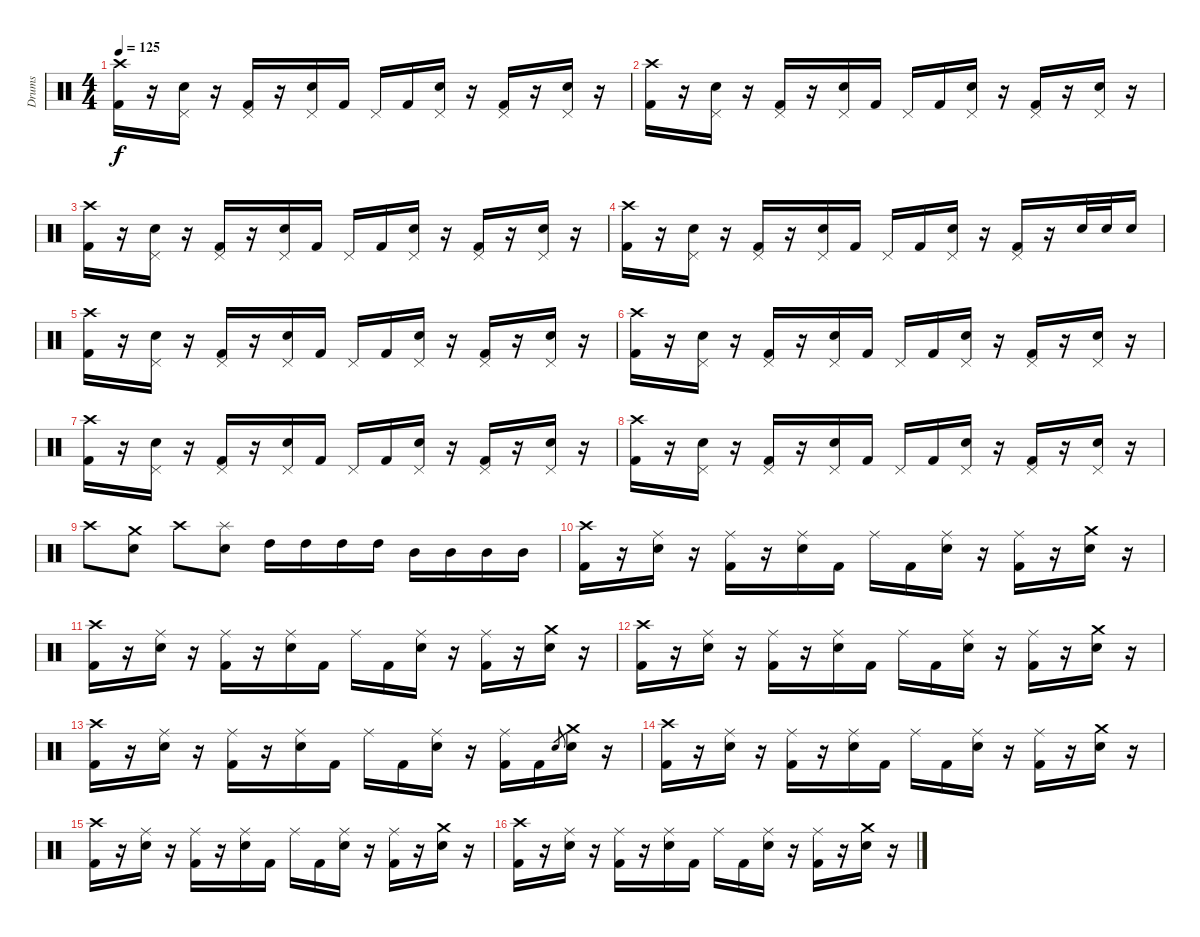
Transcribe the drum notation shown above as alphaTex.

\track ("Drums" "Drums") {instrument percussion}
\staff {score}
\articulation defaults
\ts (4 4)
\tempo 125
\clef neutral
\ks c
("Crash high (hit)" "Kick (hit) 2").16{dy f volume 14} r.16 ("Pedal Hi-Hat (hit)" "Electric Snare (hit)").16 r.16 ("Pedal Hi-Hat (hit)" "Kick (hit) 2").16 r.16 ("Pedal Hi-Hat (hit)" "Electric Snare (hit)").16 "Kick (hit) 2".16 "Pedal Hi-Hat (hit)".16 "Kick (hit) 2".16 ("Pedal Hi-Hat (hit)" "Electric Snare (hit)").16 r.16 ("Pedal Hi-Hat (hit)" "Kick (hit) 2").16 r.16 ("Pedal Hi-Hat (hit)" "Electric Snare (hit)").16 r.16 |
("Crash high (hit)" "Kick (hit) 2").16{volume 14} r.16 ("Pedal Hi-Hat (hit)" "Electric Snare (hit)").16 r.16 ("Pedal Hi-Hat (hit)" "Kick (hit) 2").16 r.16 ("Pedal Hi-Hat (hit)" "Electric Snare (hit)").16 "Kick (hit) 2".16 "Pedal Hi-Hat (hit)".16 "Kick (hit) 2".16 ("Pedal Hi-Hat (hit)" "Electric Snare (hit)").16 r.16 ("Pedal Hi-Hat (hit)" "Kick (hit) 2").16 r.16 ("Pedal Hi-Hat (hit)" "Electric Snare (hit)").16 r.16 |
("Crash high (hit)" "Kick (hit) 2").16{volume 14} r.16 ("Pedal Hi-Hat (hit)" "Electric Snare (hit)").16 r.16 ("Pedal Hi-Hat (hit)" "Kick (hit) 2").16 r.16 ("Pedal Hi-Hat (hit)" "Electric Snare (hit)").16 "Kick (hit) 2".16 "Pedal Hi-Hat (hit)".16 "Kick (hit) 2".16 ("Pedal Hi-Hat (hit)" "Electric Snare (hit)").16 r.16 ("Pedal Hi-Hat (hit)" "Kick (hit) 2").16 r.16 ("Pedal Hi-Hat (hit)" "Electric Snare (hit)").16 r.16 |
("Crash high (hit)" "Kick (hit) 2").16{volume 14} r.16 ("Pedal Hi-Hat (hit)" "Electric Snare (hit)").16 r.16 ("Pedal Hi-Hat (hit)" "Kick (hit) 2").16 r.16 ("Pedal Hi-Hat (hit)" "Electric Snare (hit)").16 "Kick (hit) 2".16 "Pedal Hi-Hat (hit)".16 "Kick (hit) 2".16 ("Pedal Hi-Hat (hit)" "Electric Snare (hit)").16 r.16 ("Pedal Hi-Hat (hit)" "Kick (hit) 2").16 r.16 "Electric Snare (hit)".32 "Electric Snare (hit)".32 "Electric Snare (hit)".16 |
("Crash high (hit)" "Kick (hit) 2").16{volume 14} r.16 ("Pedal Hi-Hat (hit)" "Electric Snare (hit)").16 r.16 ("Pedal Hi-Hat (hit)" "Kick (hit) 2").16 r.16 ("Pedal Hi-Hat (hit)" "Electric Snare (hit)").16 "Kick (hit) 2".16 "Pedal Hi-Hat (hit)".16 "Kick (hit) 2".16 ("Pedal Hi-Hat (hit)" "Electric Snare (hit)").16 r.16 ("Pedal Hi-Hat (hit)" "Kick (hit) 2").16 r.16 ("Pedal Hi-Hat (hit)" "Electric Snare (hit)").16 r.16 |
("Crash high (hit)" "Kick (hit) 2").16{volume 14} r.16 ("Pedal Hi-Hat (hit)" "Electric Snare (hit)").16 r.16 ("Pedal Hi-Hat (hit)" "Kick (hit) 2").16 r.16 ("Pedal Hi-Hat (hit)" "Electric Snare (hit)").16 "Kick (hit) 2".16 "Pedal Hi-Hat (hit)".16 "Kick (hit) 2".16 ("Pedal Hi-Hat (hit)" "Electric Snare (hit)").16 r.16 ("Pedal Hi-Hat (hit)" "Kick (hit) 2").16 r.16 ("Pedal Hi-Hat (hit)" "Electric Snare (hit)").16 r.16 |
("Crash high (hit)" "Kick (hit) 2").16{volume 14} r.16 ("Pedal Hi-Hat (hit)" "Electric Snare (hit)").16 r.16 ("Pedal Hi-Hat (hit)" "Kick (hit) 2").16 r.16 ("Pedal Hi-Hat (hit)" "Electric Snare (hit)").16 "Kick (hit) 2".16 "Pedal Hi-Hat (hit)".16 "Kick (hit) 2".16 ("Pedal Hi-Hat (hit)" "Electric Snare (hit)").16 r.16 ("Pedal Hi-Hat (hit)" "Kick (hit) 2").16 r.16 ("Pedal Hi-Hat (hit)" "Electric Snare (hit)").16 r.16 |
("Crash high (hit)" "Kick (hit) 2").16{volume 14} r.16 ("Pedal Hi-Hat (hit)" "Electric Snare (hit)").16 r.16 ("Pedal Hi-Hat (hit)" "Kick (hit) 2").16 r.16 ("Pedal Hi-Hat (hit)" "Electric Snare (hit)").16 "Kick (hit) 2".16 "Pedal Hi-Hat (hit)".16 "Kick (hit) 2".16 ("Pedal Hi-Hat (hit)" "Electric Snare (hit)").16 r.16 ("Pedal Hi-Hat (hit)" "Kick (hit) 2").16 r.16 ("Pedal Hi-Hat (hit)" "Electric Snare (hit)").16 r.16 |
"Crash high (hit)".8 ("Crash medium (hit)" "Electric Snare (hit)").8 "Crash high (hit)".8 ("Splash (hit)" "Electric Snare (hit)").8 "High Tom (hit)".16 "High Tom (hit)".16 "High Tom (hit)".16 "High Tom (hit)".16 "Mid Tom (hit)".16 "Mid Tom (hit)".16 "Mid Tom (hit)".16 "Mid Tom (hit)".16 |
("Crash high (hit)" "Kick (hit) 2").16 r.16 ("Ride (middle)" "Electric Snare (hit)").16 r.16 ("Ride (middle)" "Kick (hit) 2").16 r.16 ("Ride (middle)" "Electric Snare (hit)").16 "Kick (hit) 2".16 "Ride (middle)".16 "Kick (hit) 2".16 ("Ride (middle)" "Electric Snare (hit)").16 r.16 ("Ride (middle)" "Kick (hit) 2").16 r.16 ("Crash medium (hit)" "Electric Snare (hit)").16 r.16 |
("Crash high (hit)" "Kick (hit) 2").16 r.16 ("Ride (middle)" "Electric Snare (hit)").16 r.16 ("Ride (middle)" "Kick (hit) 2").16 r.16 ("Ride (middle)" "Electric Snare (hit)").16 "Kick (hit) 2".16 "Ride (middle)".16 "Kick (hit) 2".16 ("Ride (middle)" "Electric Snare (hit)").16 r.16 ("Ride (middle)" "Kick (hit) 2").16 r.16 ("Crash medium (hit)" "Electric Snare (hit)").16 r.16 |
("Crash high (hit)" "Kick (hit) 2").16 r.16 ("Ride (middle)" "Electric Snare (hit)").16 r.16 ("Ride (middle)" "Kick (hit) 2").16 r.16 ("Ride (middle)" "Electric Snare (hit)").16 "Kick (hit) 2".16 "Ride (middle)".16 "Kick (hit) 2".16 ("Ride (middle)" "Electric Snare (hit)").16 r.16 ("Ride (middle)" "Kick (hit) 2").16 r.16 ("Crash medium (hit)" "Electric Snare (hit)").16 r.16 |
("Crash high (hit)" "Kick (hit) 2").16 r.16 ("Ride (middle)" "Electric Snare (hit)").16 r.16 ("Ride (middle)" "Kick (hit) 2").16 r.16 ("Ride (middle)" "Electric Snare (hit)").16 "Kick (hit) 2".16 "Ride (middle)".16 "Kick (hit) 2".16 ("Ride (middle)" "Electric Snare (hit)").16 r.16 ("Ride (middle)" "Kick (hit) 2").16 "Kick (hit) 2".16 "Electric Snare (hit)".8{gr} ("Crash medium (hit)" "Electric Snare (hit)").16 r.16 |
("Crash high (hit)" "Kick (hit) 2").16 r.16 ("Ride (middle)" "Electric Snare (hit)").16 r.16 ("Ride (middle)" "Kick (hit) 2").16 r.16 ("Ride (middle)" "Electric Snare (hit)").16 "Kick (hit) 2".16 "Ride (middle)".16 "Kick (hit) 2".16 ("Ride (middle)" "Electric Snare (hit)").16 r.16 ("Ride (middle)" "Kick (hit) 2").16 r.16 ("Crash medium (hit)" "Electric Snare (hit)").16 r.16 |
("Crash high (hit)" "Kick (hit) 2").16 r.16 ("Ride (middle)" "Electric Snare (hit)").16 r.16 ("Ride (middle)" "Kick (hit) 2").16 r.16 ("Ride (middle)" "Electric Snare (hit)").16 "Kick (hit) 2".16 "Ride (middle)".16 "Kick (hit) 2".16 ("Ride (middle)" "Electric Snare (hit)").16 r.16 ("Ride (middle)" "Kick (hit) 2").16 r.16 ("Crash medium (hit)" "Electric Snare (hit)").16 r.16 |
("Crash high (hit)" "Kick (hit) 2").16 r.16 ("Ride (middle)" "Electric Snare (hit)").16 r.16 ("Ride (middle)" "Kick (hit) 2").16 r.16 ("Ride (middle)" "Electric Snare (hit)").16 "Kick (hit) 2".16 "Ride (middle)".16 "Kick (hit) 2".16 ("Ride (middle)" "Electric Snare (hit)").16 r.16 ("Ride (middle)" "Kick (hit) 2").16 r.16 ("Crash medium (hit)" "Electric Snare (hit)").16 r.16
